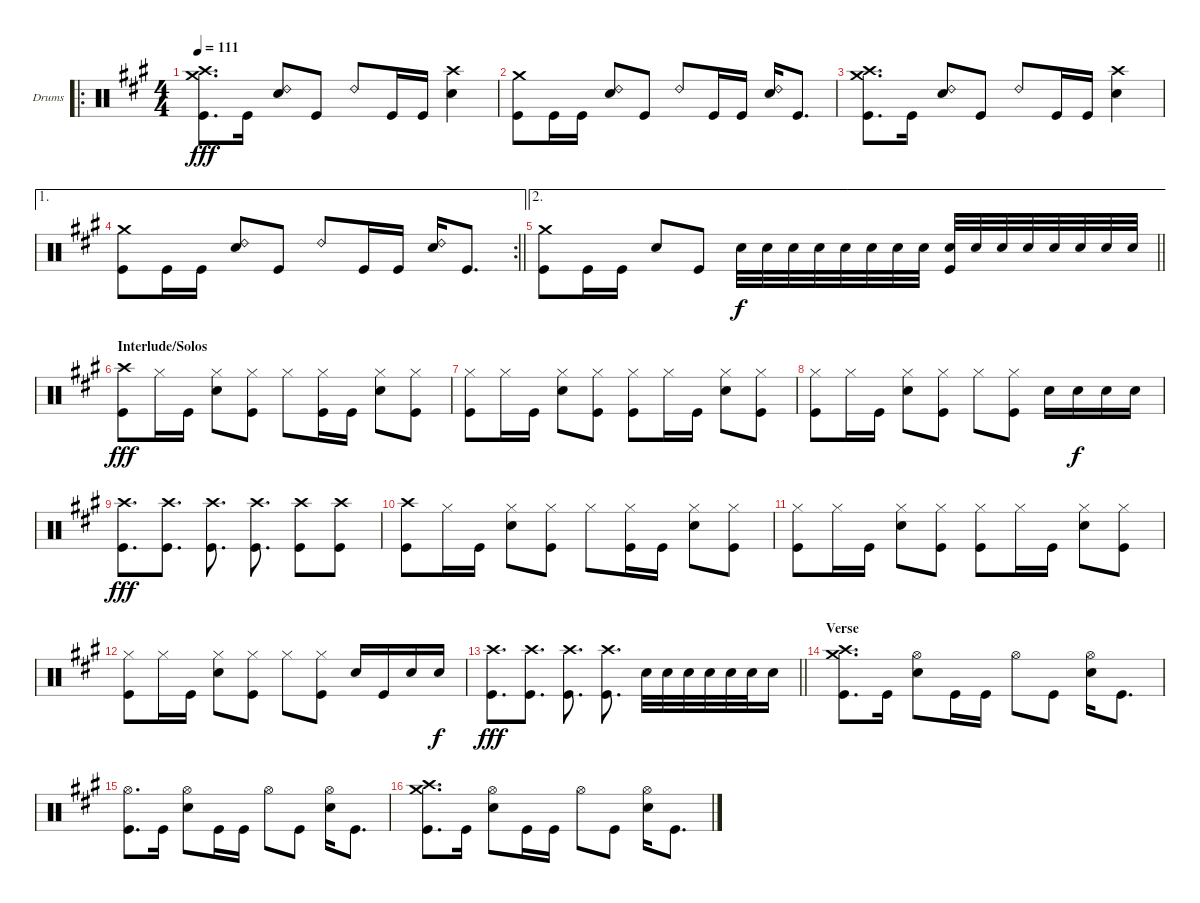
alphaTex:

\bracketExtendMode groupsimilarinstruments
\firstSystemTrackNameOrientation horizontal
\otherSystemsTrackNameOrientation horizontal
\track ("Drumkit" "Drums") {instrument percussion}
\staff {score}
\articulation defaults
\ro
\ts (4 4)
\tempo 111
\clef neutral
\scale
0.336331
\ks a
("Crash high (hit)" "Crash medium (hit)" "Kick (hit)").8{d dy fff} "Kick (hit)".16 ("Snare (hit) 2" "Ride (bell) 2").8 "Kick (hit)".8 "Ride (bell) 2".8 "Kick (hit)".16 "Kick (hit)".16 ("Crash high (hit)" "Snare (hit) 2").4 |
\scale
0.348921 ("Crash medium (hit)" "Kick (hit)").8 "Kick (hit)".16 "Kick (hit)".16 ("Snare (hit) 2" "Ride (bell) 2").8 "Kick (hit)".8 "Ride (bell) 2".8 "Kick (hit)".16 "Kick (hit)".16 ("Snare (hit) 2" "Ride (bell) 2").16 "Kick (hit)".8{d} |
\scale
0.314748 ("Crash high (hit)" "Crash medium (hit)" "Kick (hit)").8{d} "Kick (hit)".16 ("Snare (hit) 2" "Ride (bell) 2").8 "Kick (hit)".8 "Ride (bell) 2".8 "Kick (hit)".16 "Kick (hit)".16 ("Crash high (hit)" "Snare (hit) 2").4 |
\ae 1
\rc 2
\scale
0.289855
\barLineRight lightlight
("Crash medium (hit)" "Kick (hit)").8 "Kick (hit)".16 "Kick (hit)".16 ("Ride (bell) 2" "Snare (hit) 2").8 "Kick (hit)".8 "Ride (bell) 2".8 "Kick (hit)".16 "Kick (hit)".16 ("Snare (hit) 2" "Ride (bell) 2").16 "Kick (hit)".8{d} |
\ae 2
\scale
0.428986
\barLineRight lightlight
("Crash medium (hit)" "Kick (hit)").8 "Kick (hit)".16 "Kick (hit)".16 "Snare (hit) 2".8 "Kick (hit)".8 "Snare (hit) 2".32{dy f} "Snare (hit) 2".32 "Snare (hit) 2".32 "Snare (hit) 2".32 "Snare (hit) 2".32 "Snare (hit) 2".32 "Snare (hit) 2".32 "Snare (hit) 2".32 ("Snare (hit) 2" "Kick (hit)").32 "Snare (hit) 2".32 "Snare (hit) 2".32 "Snare (hit) 2".32 "Snare (hit) 2".32 "Snare (hit) 2".32 "Snare (hit) 2".32 "Snare (hit) 2".32 |
\section ("" "Interlude/Solos")
\scale
0.281159 ("Kick (hit)" "Crash high (hit)").8{dy fff} "Hi-Hat (closed)".16 "Kick (hit)".16 ("Snare (hit) 2" "Hi-Hat (closed)").8 ("Kick (hit)" "Hi-Hat (closed)").8 "Hi-Hat (closed)".8 ("Kick (hit)" "Hi-Hat (closed)").16 "Kick (hit)".16 ("Snare (hit) 2" "Hi-Hat (closed)").8 ("Hi-Hat (closed)" "Kick (hit)").8 |
\scale
0.359926 ("Kick (hit)" "Hi-Hat (closed)").8 "Hi-Hat (closed)".16 "Kick (hit)".16 ("Snare (hit) 2" "Hi-Hat (closed)").8 ("Kick (hit)" "Hi-Hat (closed)").8 ("Hi-Hat (closed)" "Kick (hit)").8 "Hi-Hat (closed)".16 "Kick (hit)".16 ("Snare (hit) 2" "Hi-Hat (closed)").8 ("Hi-Hat (closed)" "Kick (hit)").8 |
\scale
0.376623 ("Kick (hit)" "Hi-Hat (closed)").8 "Hi-Hat (closed)".16 "Kick (hit)".16 ("Snare (hit) 2" "Hi-Hat (closed)").8 ("Kick (hit)" "Hi-Hat (closed)").8 "Hi-Hat (closed)".8 ("Kick (hit)" "Hi-Hat (closed)").8 "Snare (hit) 2".16 "Snare (hit) 2".16{dy f} "Snare (hit) 2".16 "Snare (hit) 2".16 |
\scale
0.263451 ("Crash high (hit)" "Kick (hit)").8{d dy fff} ("Crash high (hit)" "Kick (hit)").8{d} ("Crash high (hit)" "Kick (hit)").8{d} ("Crash high (hit)" "Kick (hit)").8{d} ("Crash high (hit)" "Kick (hit)").8 ("Crash high (hit)" "Kick (hit)").8 |
\scale
0.328257 ("Kick (hit)" "Crash high (hit)").8 "Hi-Hat (closed)".16 "Kick (hit)".16 ("Snare (hit) 2" "Hi-Hat (closed)").8 ("Kick (hit)" "Hi-Hat (closed)").8 "Hi-Hat (closed)".8 ("Kick (hit)" "Hi-Hat (closed)").16 "Kick (hit)".16 ("Snare (hit) 2" "Hi-Hat (closed)").8 ("Hi-Hat (closed)" "Kick (hit)").8 |
\scale
0.328257 ("Kick (hit)" "Hi-Hat (closed)").8 "Hi-Hat (closed)".16 "Kick (hit)".16 ("Snare (hit) 2" "Hi-Hat (closed)").8 ("Kick (hit)" "Hi-Hat (closed)").8 ("Hi-Hat (closed)" "Kick (hit)").8 "Hi-Hat (closed)".16 "Kick (hit)".16 ("Snare (hit) 2" "Hi-Hat (closed)").8 ("Hi-Hat (closed)" "Kick (hit)").8 |
\scale
0.343486 ("Kick (hit)" "Hi-Hat (closed)").8 "Hi-Hat (closed)".16 "Kick (hit)".16 ("Snare (hit) 2" "Hi-Hat (closed)").8 ("Kick (hit)" "Hi-Hat (closed)").8 "Hi-Hat (closed)".8 ("Kick (hit)" "Hi-Hat (closed)").8 "Snare (hit) 2".16 "Kick (hit)".16 "Snare (hit) 2".16 "Snare (hit) 2".16{dy f} |
\scale
0.365352
\barLineRight lightlight
("Crash high (hit)" "Kick (hit)").8{d dy fff} ("Crash high (hit)" "Kick (hit)").8{d} ("Crash high (hit)" "Kick (hit)").8{d} ("Crash high (hit)" "Kick (hit)").8{d} "Snare (hit) 2".32 "Snare (hit) 2".32 "Snare (hit) 2".32 "Snare (hit) 2".32 "Snare (hit) 2".32 "Snare (hit) 2".32 "Snare (hit) 2".16 |
\section ("" "Verse")
\scale
0.317324 ("Crash high (hit)" "Crash medium (hit)" "Kick (hit)").8{d} "Kick (hit)".16 ("Hi-Hat (open)" "Snare (hit) 2").8 "Kick (hit)".16 "Kick (hit)".16 "Hi-Hat (open)".8 "Kick (hit)".8 ("Hi-Hat (open)" "Snare (hit) 2").16 "Kick (hit)".8{d} |
\scale
0.317324 ("Hi-Hat (open)" "Kick (hit)").8{d} "Kick (hit)".16 ("Hi-Hat (open)" "Snare (hit) 2").8 "Kick (hit)".16 "Kick (hit)".16 "Hi-Hat (open)".8 "Kick (hit)".8 ("Hi-Hat (open)" "Snare (hit) 2").16 "Kick (hit)".8{d} |
\scale
0.333333 ("Crash high (hit)" "Crash medium (hit)" "Kick (hit)").8{d} "Kick (hit)".16 ("Hi-Hat (open)" "Snare (hit) 2").8 "Kick (hit)".16 "Kick (hit)".16 "Hi-Hat (open)".8 "Kick (hit)".8 ("Hi-Hat (open)" "Snare (hit) 2").16 "Kick (hit)".8{d}
